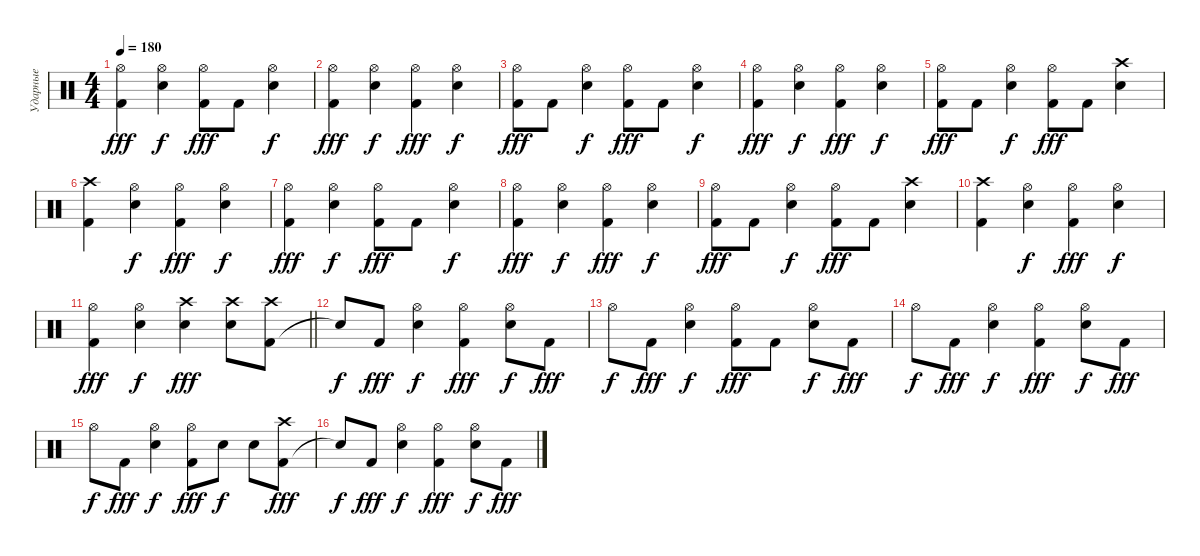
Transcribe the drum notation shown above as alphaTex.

\track ("Ударные" "Ударные") {instrument percussion}
\staff {score}
\articulation defaults
\ts (4 4)
\tempo 180
\clef neutral
\ks c
("Kick (hit) 2" "Hi-Hat (open)").4{dy fff} ("Snare (hit) 2" "Hi-Hat (open)").4{dy f} ("Kick (hit) 2" "Hi-Hat (open)").8{dy fff} "Kick (hit) 2".8 ("Snare (hit) 2" "Hi-Hat (open)").4{dy f} |
("Kick (hit) 2" "Hi-Hat (open)").4{dy fff} ("Snare (hit) 2" "Hi-Hat (open)").4{dy f} ("Kick (hit) 2" "Hi-Hat (open)").4{dy fff} ("Snare (hit) 2" "Hi-Hat (open)").4{dy f} |
("Kick (hit) 2" "Hi-Hat (open)").8{dy fff} "Kick (hit) 2".8 ("Snare (hit) 2" "Hi-Hat (open)").4{dy f} ("Kick (hit) 2" "Hi-Hat (open)").8{dy fff} "Kick (hit) 2".8 ("Snare (hit) 2" "Hi-Hat (open)").4{dy f} |
("Kick (hit) 2" "Hi-Hat (open)").4{dy fff} ("Snare (hit) 2" "Hi-Hat (open)").4{dy f} ("Kick (hit) 2" "Hi-Hat (open)").4{dy fff} ("Snare (hit) 2" "Hi-Hat (open)").4{dy f} |
("Kick (hit) 2" "Hi-Hat (open)").8{dy fff} "Kick (hit) 2".8 ("Snare (hit) 2" "Hi-Hat (open)").4{dy f} ("Kick (hit) 2" "Hi-Hat (open)").8{dy fff} "Kick (hit) 2".8 ("Snare (hit) 2" "Crash high (hit)").4 |
("Kick (hit) 2" "Crash high (hit)").4 ("Snare (hit) 2" "Hi-Hat (open)").4{dy f} ("Kick (hit) 2" "Hi-Hat (open)").4{dy fff} ("Snare (hit) 2" "Hi-Hat (open)").4{dy f} |
("Kick (hit) 2" "Hi-Hat (open)").4{dy fff} ("Snare (hit) 2" "Hi-Hat (open)").4{dy f} ("Kick (hit) 2" "Hi-Hat (open)").8{dy fff} "Kick (hit) 2".8 ("Snare (hit) 2" "Hi-Hat (open)").4{dy f} |
("Kick (hit) 2" "Hi-Hat (open)").4{dy fff} ("Snare (hit) 2" "Hi-Hat (open)").4{dy f} ("Kick (hit) 2" "Hi-Hat (open)").4{dy fff} ("Snare (hit) 2" "Hi-Hat (open)").4{dy f} |
("Kick (hit) 2" "Hi-Hat (open)").8{dy fff} "Kick (hit) 2".8 ("Snare (hit) 2" "Hi-Hat (open)").4{dy f} ("Kick (hit) 2" "Hi-Hat (open)").8{dy fff} "Kick (hit) 2".8 ("Snare (hit) 2" "Crash high (hit)").4 |
("Kick (hit) 2" "Crash high (hit)").4 ("Snare (hit) 2" "Hi-Hat (open)").4{dy f} ("Kick (hit) 2" "Hi-Hat (open)").4{dy fff} ("Snare (hit) 2" "Hi-Hat (open)").4{dy f} |
\barLineRight lightlight
("Kick (hit) 2" "Hi-Hat (open)").4{dy fff} ("Snare (hit) 2" "Hi-Hat (open)").4{dy f} ("Snare (hit) 2" "Crash high (hit)").4{dy fff} ("Snare (hit) 2" "Crash high (hit)").8 ("Kick (hit) 2" "Crash high (hit)").8 |
"Snare (hit)"{t}.8{dy f} "Kick (hit) 2".8{dy fff} ("Snare (hit) 2" "Hi-Hat (open)").4{dy f} ("Kick (hit) 2" "Hi-Hat (open)").4{dy fff} ("Snare (hit) 2" "Hi-Hat (open)").8{dy f} "Kick (hit) 2".8{dy fff} |
"Hi-Hat (open)".8{dy f} "Kick (hit) 2".8{dy fff} ("Snare (hit) 2" "Hi-Hat (open)").4{dy f} ("Kick (hit) 2" "Hi-Hat (open)").8{dy fff} "Kick (hit) 2".8 ("Snare (hit) 2" "Hi-Hat (open)").8{dy f} "Kick (hit) 2".8{dy fff} |
"Hi-Hat (open)".8{dy f} "Kick (hit) 2".8{dy fff} ("Snare (hit) 2" "Hi-Hat (open)").4{dy f} ("Kick (hit) 2" "Hi-Hat (open)").4{dy fff} ("Snare (hit) 2" "Hi-Hat (open)").8{dy f} "Kick (hit) 2".8{dy fff} |
"Hi-Hat (open)".8{dy f} "Kick (hit) 2".8{dy fff} ("Snare (hit) 2" "Hi-Hat (open)").4{dy f} ("Kick (hit) 2" "Hi-Hat (open)").8{dy fff} "Snare (hit) 2".8{dy f} "Snare (hit) 2".8 ("Kick (hit) 2" "Crash high (hit)").8{dy fff} |
"Snare (hit)"{t}.8{dy f} "Kick (hit) 2".8{dy fff} ("Snare (hit) 2" "Hi-Hat (open)").4{dy f} ("Kick (hit) 2" "Hi-Hat (open)").4{dy fff} ("Snare (hit) 2" "Hi-Hat (open)").8{dy f} "Kick (hit) 2".8{dy fff}
